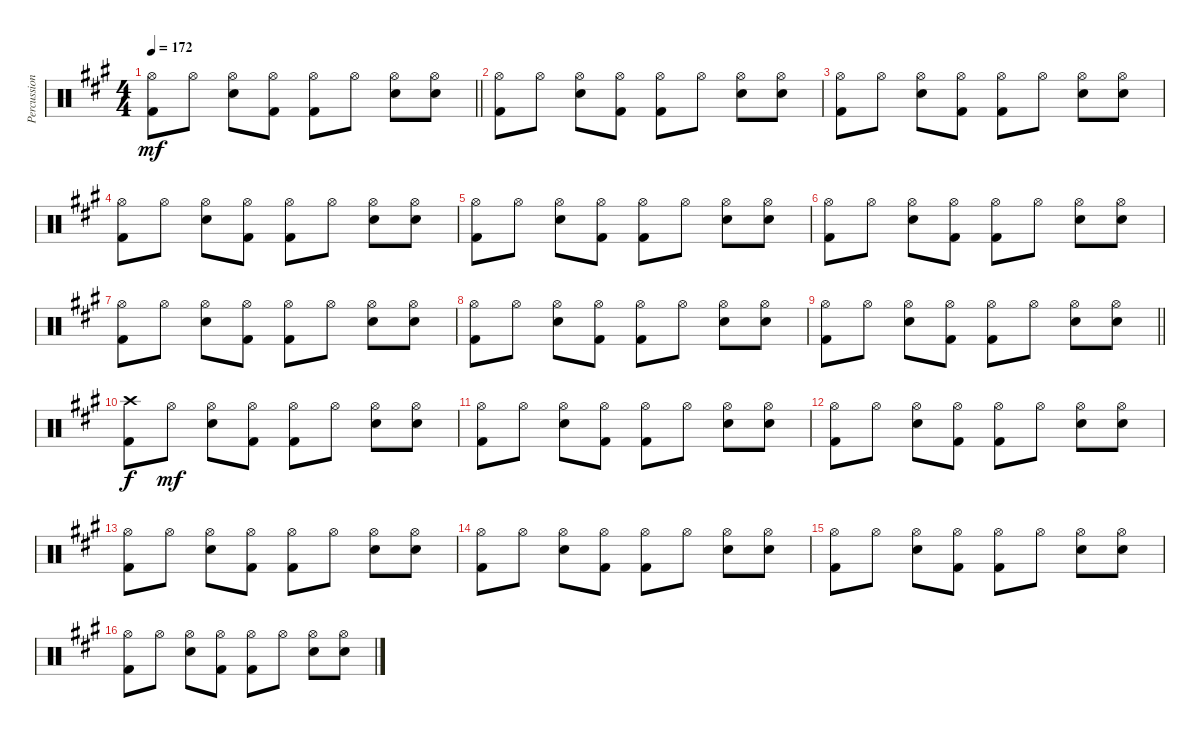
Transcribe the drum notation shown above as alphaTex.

\track ("Percussion" "Percussion") {instrument percussion}
\staff {score}
\articulation defaults
\ts (4 4)
\tempo 172
\clef neutral
\barLineRight lightlight
\ks a
("Hi-Hat (open)" "Kick (hit) 2").8{dy mf} "Hi-Hat (open)".8 ("Hi-Hat (open)" "Snare (hit) 2").8 ("Hi-Hat (open)" "Kick (hit) 2").8 ("Hi-Hat (open)" "Kick (hit) 2").8 "Hi-Hat (open)".8 ("Hi-Hat (open)" "Snare (hit) 2").8 ("Hi-Hat (open)" "Snare (hit) 2").8 |
("Hi-Hat (open)" "Kick (hit) 2").8 "Hi-Hat (open)".8 ("Hi-Hat (open)" "Snare (hit) 2").8 ("Hi-Hat (open)" "Kick (hit) 2").8 ("Hi-Hat (open)" "Kick (hit) 2").8 "Hi-Hat (open)".8 ("Hi-Hat (open)" "Snare (hit) 2").8 ("Hi-Hat (open)" "Snare (hit) 2").8 |
("Hi-Hat (open)" "Kick (hit) 2").8 "Hi-Hat (open)".8 ("Hi-Hat (open)" "Snare (hit) 2").8 ("Hi-Hat (open)" "Kick (hit) 2").8 ("Hi-Hat (open)" "Kick (hit) 2").8 "Hi-Hat (open)".8 ("Hi-Hat (open)" "Snare (hit) 2").8 ("Hi-Hat (open)" "Snare (hit) 2").8 |
("Hi-Hat (open)" "Kick (hit) 2").8 "Hi-Hat (open)".8 ("Hi-Hat (open)" "Snare (hit) 2").8 ("Hi-Hat (open)" "Kick (hit) 2").8 ("Hi-Hat (open)" "Kick (hit) 2").8 "Hi-Hat (open)".8 ("Hi-Hat (open)" "Snare (hit) 2").8 ("Hi-Hat (open)" "Snare (hit) 2").8 |
("Hi-Hat (open)" "Kick (hit) 2").8 "Hi-Hat (open)".8 ("Hi-Hat (open)" "Snare (hit) 2").8 ("Hi-Hat (open)" "Kick (hit) 2").8 ("Hi-Hat (open)" "Kick (hit) 2").8 "Hi-Hat (open)".8 ("Hi-Hat (open)" "Snare (hit) 2").8 ("Hi-Hat (open)" "Snare (hit) 2").8 |
("Hi-Hat (open)" "Kick (hit) 2").8 "Hi-Hat (open)".8 ("Hi-Hat (open)" "Snare (hit) 2").8 ("Hi-Hat (open)" "Kick (hit) 2").8 ("Hi-Hat (open)" "Kick (hit) 2").8 "Hi-Hat (open)".8 ("Hi-Hat (open)" "Snare (hit) 2").8 ("Hi-Hat (open)" "Snare (hit) 2").8 |
("Hi-Hat (open)" "Kick (hit) 2").8 "Hi-Hat (open)".8 ("Hi-Hat (open)" "Snare (hit) 2").8 ("Hi-Hat (open)" "Kick (hit) 2").8 ("Hi-Hat (open)" "Kick (hit) 2").8 "Hi-Hat (open)".8 ("Hi-Hat (open)" "Snare (hit) 2").8 ("Hi-Hat (open)" "Snare (hit) 2").8 |
("Hi-Hat (open)" "Kick (hit) 2").8 "Hi-Hat (open)".8 ("Hi-Hat (open)" "Snare (hit) 2").8 ("Hi-Hat (open)" "Kick (hit) 2").8 ("Hi-Hat (open)" "Kick (hit) 2").8 "Hi-Hat (open)".8 ("Hi-Hat (open)" "Snare (hit) 2").8 ("Hi-Hat (open)" "Snare (hit) 2").8 |
\barLineRight lightlight
("Hi-Hat (open)" "Kick (hit) 2").8 "Hi-Hat (open)".8 ("Hi-Hat (open)" "Snare (hit) 2").8 ("Hi-Hat (open)" "Kick (hit) 2").8 ("Hi-Hat (open)" "Kick (hit) 2").8 "Hi-Hat (open)".8 ("Hi-Hat (open)" "Snare (hit) 2").8 ("Hi-Hat (open)" "Snare (hit) 2").8 |
("Crash high (hit)" "Kick (hit) 2").8{dy f} "Hi-Hat (open)".8{dy mf} ("Hi-Hat (open)" "Snare (hit) 2").8 ("Hi-Hat (open)" "Kick (hit) 2").8 ("Hi-Hat (open)" "Kick (hit) 2").8 "Hi-Hat (open)".8 ("Hi-Hat (open)" "Snare (hit) 2").8 ("Hi-Hat (open)" "Snare (hit) 2").8 |
("Hi-Hat (open)" "Kick (hit) 2").8 "Hi-Hat (open)".8 ("Hi-Hat (open)" "Snare (hit) 2").8 ("Hi-Hat (open)" "Kick (hit) 2").8 ("Hi-Hat (open)" "Kick (hit) 2").8 "Hi-Hat (open)".8 ("Hi-Hat (open)" "Snare (hit) 2").8 ("Hi-Hat (open)" "Snare (hit) 2").8 |
("Hi-Hat (open)" "Kick (hit) 2").8 "Hi-Hat (open)".8 ("Hi-Hat (open)" "Snare (hit) 2").8 ("Hi-Hat (open)" "Kick (hit) 2").8 ("Hi-Hat (open)" "Kick (hit) 2").8 "Hi-Hat (open)".8 ("Hi-Hat (open)" "Snare (hit) 2").8 ("Hi-Hat (open)" "Snare (hit) 2").8 |
("Hi-Hat (open)" "Kick (hit) 2").8 "Hi-Hat (open)".8 ("Hi-Hat (open)" "Snare (hit) 2").8 ("Hi-Hat (open)" "Kick (hit) 2").8 ("Hi-Hat (open)" "Kick (hit) 2").8 "Hi-Hat (open)".8 ("Hi-Hat (open)" "Snare (hit) 2").8 ("Hi-Hat (open)" "Snare (hit) 2").8 |
("Hi-Hat (open)" "Kick (hit) 2").8 "Hi-Hat (open)".8 ("Hi-Hat (open)" "Snare (hit) 2").8 ("Hi-Hat (open)" "Kick (hit) 2").8 ("Hi-Hat (open)" "Kick (hit) 2").8 "Hi-Hat (open)".8 ("Hi-Hat (open)" "Snare (hit) 2").8 ("Hi-Hat (open)" "Snare (hit) 2").8 |
("Hi-Hat (open)" "Kick (hit) 2").8 "Hi-Hat (open)".8 ("Hi-Hat (open)" "Snare (hit) 2").8 ("Hi-Hat (open)" "Kick (hit) 2").8 ("Hi-Hat (open)" "Kick (hit) 2").8 "Hi-Hat (open)".8 ("Hi-Hat (open)" "Snare (hit) 2").8 ("Hi-Hat (open)" "Snare (hit) 2").8 |
("Hi-Hat (open)" "Kick (hit) 2").8 "Hi-Hat (open)".8 ("Hi-Hat (open)" "Snare (hit) 2").8 ("Hi-Hat (open)" "Kick (hit) 2").8 ("Hi-Hat (open)" "Kick (hit) 2").8 "Hi-Hat (open)".8 ("Hi-Hat (open)" "Snare (hit) 2").8 ("Hi-Hat (open)" "Snare (hit) 2").8
